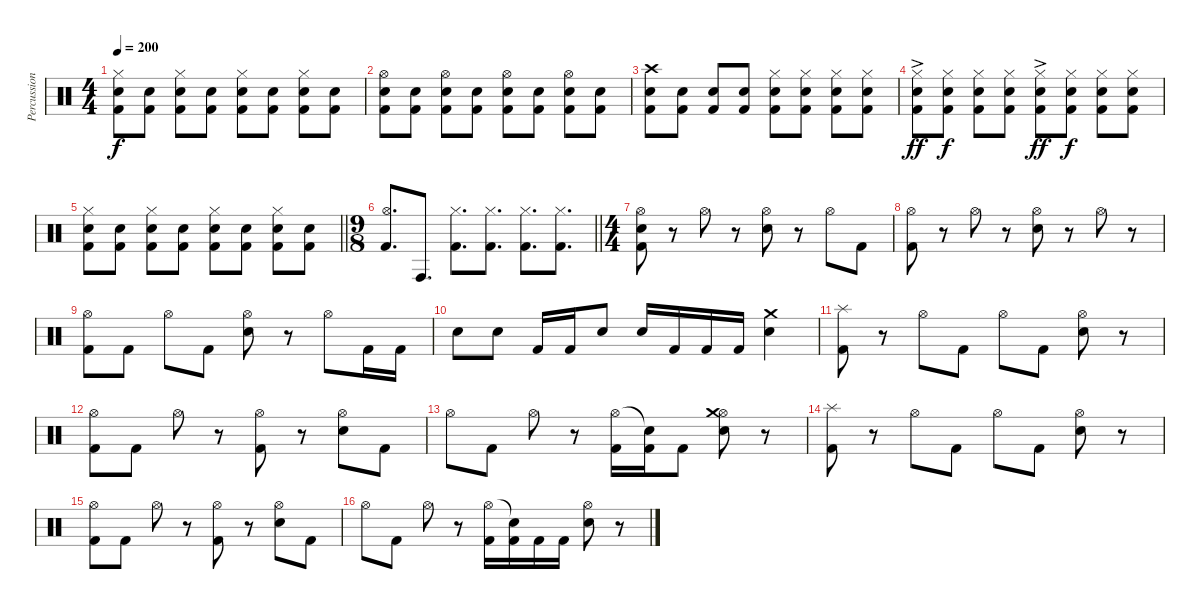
\track ("Percussions" "Percussion") {instrument percussion}
\staff {score}
\articulation defaults
\ts (4 4)
\tempo 200
\clef neutral
\ks c
("Hi-Hat (closed)" "Electric Snare (hit)" "Kick (hit) 2").8{dy f} ("Electric Snare (hit)" "Kick (hit) 2").8 ("Hi-Hat (closed)" "Electric Snare (hit)" "Kick (hit) 2").8 ("Electric Snare (hit)" "Kick (hit) 2").8 ("Hi-Hat (closed)" "Electric Snare (hit)" "Kick (hit) 2").8 ("Electric Snare (hit)" "Kick (hit) 2").8 ("Hi-Hat (closed)" "Electric Snare (hit)" "Kick (hit) 2").8 ("Electric Snare (hit)" "Kick (hit) 2").8 |
("Hi-Hat (open)" "Electric Snare (hit)" "Kick (hit) 2").8 ("Electric Snare (hit)" "Kick (hit) 2").8 ("Hi-Hat (open)" "Electric Snare (hit)" "Kick (hit) 2").8 ("Electric Snare (hit)" "Kick (hit) 2").8 ("Hi-Hat (open)" "Electric Snare (hit)" "Kick (hit) 2").8 ("Electric Snare (hit)" "Kick (hit) 2").8 ("Hi-Hat (open)" "Electric Snare (hit)" "Kick (hit) 2").8 ("Electric Snare (hit)" "Kick (hit) 2").8 |
("Crash high (hit)" "Electric Snare (hit)" "Kick (hit) 2").8 ("Electric Snare (hit)" "Kick (hit) 2").8 ("Electric Snare (hit)" "Kick (hit) 2").8 ("Electric Snare (hit)" "Kick (hit) 2").8 ("Hi-Hat (closed)" "Electric Snare (hit)" "Kick (hit) 2").8 ("Hi-Hat (closed)" "Electric Snare (hit)" "Kick (hit) 2").8 ("Hi-Hat (closed)" "Electric Snare (hit)" "Kick (hit) 2").8 ("Hi-Hat (closed)" "Electric Snare (hit)" "Kick (hit) 2").8 |
("Hi-Hat (closed)"{ac} "Electric Snare (hit)" "Kick (hit) 2").8{dy ff} ("Hi-Hat (closed)" "Electric Snare (hit)" "Kick (hit) 2").8{dy f} ("Hi-Hat (closed)" "Electric Snare (hit)" "Kick (hit) 2").8 ("Hi-Hat (closed)" "Electric Snare (hit)" "Kick (hit) 2").8 ("Hi-Hat (closed)"{ac} "Electric Snare (hit)" "Kick (hit) 2").8{dy ff} ("Hi-Hat (closed)" "Electric Snare (hit)" "Kick (hit) 2").8{dy f} ("Hi-Hat (closed)" "Electric Snare (hit)" "Kick (hit) 2").8 ("Hi-Hat (closed)" "Electric Snare (hit)" "Kick (hit) 2").8 |
\barLineRight lightlight
("Hi-Hat (closed)" "Electric Snare (hit)" "Kick (hit) 2").8 ("Electric Snare (hit)" "Kick (hit) 2").8 ("Hi-Hat (closed)" "Electric Snare (hit)" "Kick (hit) 2").8 ("Electric Snare (hit)" "Kick (hit) 2").8 ("Hi-Hat (closed)" "Electric Snare (hit)" "Kick (hit) 2").8 ("Electric Snare (hit)" "Kick (hit) 2").8 ("Hi-Hat (closed)" "Electric Snare (hit)" "Kick (hit) 2").8 ("Electric Snare (hit)" "Kick (hit) 2").8 |
\ts (9 8)
\barLineRight lightlight
("Hi-Hat (open)" "Kick (hit) 2").8{d} "Conga high (hit)".8{d} ("Hi-Hat (closed)" "Kick (hit) 2").8{d} ("Hi-Hat (closed)" "Kick (hit) 2").8{d} ("Hi-Hat (closed)" "Kick (hit) 2").8{d} ("Hi-Hat (closed)" "Kick (hit) 2").8{d} |
\ts (4 4)
\section ("" "")
("Hi-Hat (open)" "Electric Snare (hit)" "Kick (hit) 2").8 r.8 "Hi-Hat (open)".8 r.8 ("Hi-Hat (open)" "Electric Snare (hit)").8 r.8 "Hi-Hat (open)".8 "Kick (hit) 2".8 |
("Hi-Hat (open)" "Kick (hit) 2").8 r.8 "Hi-Hat (open)".8 r.8 ("Hi-Hat (open)" "Electric Snare (hit)").8 r.8 "Hi-Hat (open)".8 r.8 |
("Hi-Hat (open)" "Kick (hit) 2").8 "Kick (hit) 2".8 "Hi-Hat (open)".8 "Kick (hit) 2".8 ("Hi-Hat (open)" "Electric Snare (hit)").8 r.8 "Hi-Hat (open)".8 "Kick (hit) 2".16 "Kick (hit) 2".16 |
"Electric Snare (hit)".8 "Electric Snare (hit)".8 "Kick (hit) 2".16 "Kick (hit) 2".16 "Electric Snare (hit)".8 "Electric Snare (hit)".16 "Kick (hit) 2".16 "Kick (hit) 2".16 "Kick (hit) 2".16 ("Crash medium (hit)" "Electric Snare (hit)").4{balance 14} |
("Splash (hit)" "Kick (hit) 2").8{volume 16 balance 0} r.8{balance 8} "Hi-Hat (open)".8 "Kick (hit) 2".8 "Hi-Hat (open)".8 "Kick (hit) 2".8 ("Hi-Hat (open)" "Electric Snare (hit)").8 r.8 |
("Hi-Hat (open)" "Kick (hit) 2").8 "Kick (hit) 2".8 "Hi-Hat (open)".8 r.8 ("Hi-Hat (open)" "Kick (hit) 2").8 r.8 ("Hi-Hat (open)" "Electric Snare (hit)").8 "Kick (hit) 2".8 |
"Hi-Hat (open)".8 "Kick (hit) 2".8 "Hi-Hat (open)".8 r.8 ("Hi-Hat (open)" "Kick (hit) 2").16 ("Snare (hit)"{t} "Kick (hit) 2").16 "Kick (hit) 2".8 ("Hi-Hat (open)" "Electric Snare (hit)" "Crash medium (hit)").8{balance 2} r.8 |
("Splash (hit)" "Kick (hit) 2").8{balance 14} r.8{balance 8} "Hi-Hat (open)".8 "Kick (hit) 2".8 "Hi-Hat (open)".8 "Kick (hit) 2".8 ("Hi-Hat (open)" "Electric Snare (hit)").8 r.8 |
("Hi-Hat (open)" "Kick (hit) 2").8 "Kick (hit) 2".8 "Hi-Hat (open)".8 r.8 ("Hi-Hat (open)" "Kick (hit) 2").8 r.8 ("Hi-Hat (open)" "Electric Snare (hit)").8 "Kick (hit) 2".8 |
"Hi-Hat (open)".8 "Kick (hit) 2".8 "Hi-Hat (open)".8 r.8 ("Hi-Hat (open)" "Kick (hit) 2").16 ("Snare (hit)"{t} "Kick (hit) 2").16 "Kick (hit) 2".16 "Kick (hit) 2".16 ("Hi-Hat (open)" "Electric Snare (hit)").8 r.8
